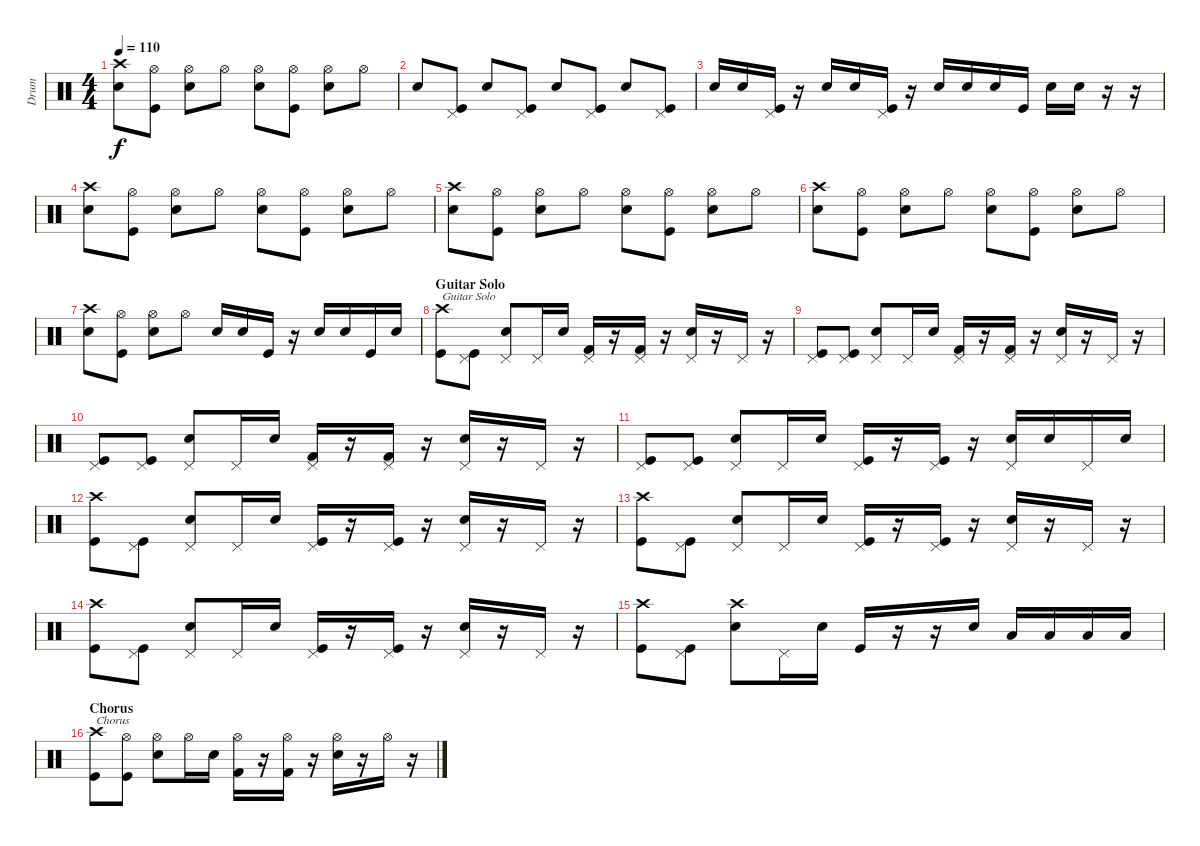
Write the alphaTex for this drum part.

\track ("Drum" "Drum") {instrument percussion}
\staff {score}
\articulation defaults
\ts (4 4)
\tempo 110
\clef neutral
\ks c
("Crash high (hit)" "Electric Snare (hit)").8{dy f} ("Hi-Hat (open)" "Kick (hit)").8 ("Hi-Hat (open)" "Electric Snare (hit)").8 "Hi-Hat (open)".8 ("Hi-Hat (open)" "Electric Snare (hit)").8 ("Hi-Hat (open)" "Kick (hit)").8 ("Hi-Hat (open)" "Electric Snare (hit)").8 "Hi-Hat (open)".8 |
"Electric Snare (hit)".8 ("Pedal Hi-Hat (hit)" "Kick (hit)").8 "Electric Snare (hit)".8 ("Pedal Hi-Hat (hit)" "Kick (hit)").8 "Electric Snare (hit)".8 ("Pedal Hi-Hat (hit)" "Kick (hit)").8 "Electric Snare (hit)".8 ("Pedal Hi-Hat (hit)" "Kick (hit)").8 |
"Electric Snare (hit)".16 "Electric Snare (hit)".16 ("Pedal Hi-Hat (hit)" "Kick (hit)").16 r.16 "Electric Snare (hit)".16 "Electric Snare (hit)".16 ("Pedal Hi-Hat (hit)" "Kick (hit)").16 r.16 "Electric Snare (hit)".16 "Electric Snare (hit)".16 "Electric Snare (hit)".16 "Kick (hit)".16 "Electric Snare (hit)".16 "Electric Snare (hit)".16 r.16 r.16 |
("Crash high (hit)" "Electric Snare (hit)").8 ("Hi-Hat (open)" "Kick (hit)").8 ("Hi-Hat (open)" "Electric Snare (hit)").8 "Hi-Hat (open)".8 ("Hi-Hat (open)" "Electric Snare (hit)").8 ("Hi-Hat (open)" "Kick (hit)").8 ("Hi-Hat (open)" "Electric Snare (hit)").8 "Hi-Hat (open)".8 |
("Crash high (hit)" "Electric Snare (hit)").8 ("Hi-Hat (open)" "Kick (hit)").8 ("Hi-Hat (open)" "Electric Snare (hit)").8 "Hi-Hat (open)".8 ("Hi-Hat (open)" "Electric Snare (hit)").8 ("Hi-Hat (open)" "Kick (hit)").8 ("Hi-Hat (open)" "Electric Snare (hit)").8 "Hi-Hat (open)".8 |
("Crash high (hit)" "Electric Snare (hit)").8 ("Hi-Hat (open)" "Kick (hit)").8 ("Hi-Hat (open)" "Electric Snare (hit)").8 "Hi-Hat (open)".8 ("Hi-Hat (open)" "Electric Snare (hit)").8 ("Hi-Hat (open)" "Kick (hit)").8 ("Hi-Hat (open)" "Electric Snare (hit)").8 "Hi-Hat (open)".8 |
("Crash high (hit)" "Electric Snare (hit)").8 ("Hi-Hat (open)" "Kick (hit)").8 ("Hi-Hat (open)" "Electric Snare (hit)").8 "Hi-Hat (open)".8 "Electric Snare (hit)".16 "Electric Snare (hit)".16 "Kick (hit)".16 r.16 "Electric Snare (hit)".16 "Electric Snare (hit)".16 "Kick (hit)".16 "Electric Snare (hit)".16 |
\section ("" "Guitar Solo")
("Crash high (hit)" "Kick (hit)").8{txt "Guitar Solo"} ("Pedal Hi-Hat (hit)" "Kick (hit)").8 ("Pedal Hi-Hat (hit)" "Electric Snare (hit)").8 "Pedal Hi-Hat (hit)".16 "Electric Snare (hit)".16 ("Pedal Hi-Hat (hit)" "Kick (hit) 2").16 r.16 ("Pedal Hi-Hat (hit)" "Kick (hit) 2").16 r.16 ("Pedal Hi-Hat (hit)" "Electric Snare (hit)").16 r.16 "Pedal Hi-Hat (hit)".16 r.16 |
("Pedal Hi-Hat (hit)" "Kick (hit)").8 ("Pedal Hi-Hat (hit)" "Kick (hit)").8 ("Pedal Hi-Hat (hit)" "Electric Snare (hit)").8 "Pedal Hi-Hat (hit)".16 "Electric Snare (hit)".16 ("Pedal Hi-Hat (hit)" "Kick (hit) 2").16 r.16 ("Pedal Hi-Hat (hit)" "Kick (hit) 2").16 r.16 ("Pedal Hi-Hat (hit)" "Electric Snare (hit)").16 r.16 "Pedal Hi-Hat (hit)".16 r.16 |
("Pedal Hi-Hat (hit)" "Kick (hit)").8 ("Pedal Hi-Hat (hit)" "Kick (hit)").8 ("Pedal Hi-Hat (hit)" "Electric Snare (hit)").8 "Pedal Hi-Hat (hit)".16 "Electric Snare (hit)".16 ("Pedal Hi-Hat (hit)" "Kick (hit) 2").16 r.16 ("Pedal Hi-Hat (hit)" "Kick (hit) 2").16 r.16 ("Pedal Hi-Hat (hit)" "Electric Snare (hit)").16 r.16 "Pedal Hi-Hat (hit)".16 r.16 |
("Pedal Hi-Hat (hit)" "Kick (hit)").8 ("Pedal Hi-Hat (hit)" "Kick (hit)").8 ("Pedal Hi-Hat (hit)" "Electric Snare (hit)").8 "Pedal Hi-Hat (hit)".16 "Electric Snare (hit)".16 ("Pedal Hi-Hat (hit)" "Kick (hit)").16 r.16 ("Pedal Hi-Hat (hit)" "Kick (hit)").16 r.16 ("Pedal Hi-Hat (hit)" "Electric Snare (hit)").16 "Electric Snare (hit)".16 "Pedal Hi-Hat (hit)".16 "Electric Snare (hit)".16 |
("Crash high (hit)" "Kick (hit)").8 ("Pedal Hi-Hat (hit)" "Kick (hit)").8 ("Pedal Hi-Hat (hit)" "Electric Snare (hit)").8 "Pedal Hi-Hat (hit)".16 "Electric Snare (hit)".16 ("Pedal Hi-Hat (hit)" "Kick (hit)").16 r.16 ("Pedal Hi-Hat (hit)" "Kick (hit)").16 r.16 ("Pedal Hi-Hat (hit)" "Electric Snare (hit)").16 r.16 "Pedal Hi-Hat (hit)".16 r.16 |
("Crash high (hit)" "Kick (hit)").8 ("Pedal Hi-Hat (hit)" "Kick (hit)").8 ("Pedal Hi-Hat (hit)" "Electric Snare (hit)").8 "Pedal Hi-Hat (hit)".16 "Electric Snare (hit)".16 ("Pedal Hi-Hat (hit)" "Kick (hit)").16 r.16 ("Pedal Hi-Hat (hit)" "Kick (hit)").16 r.16 ("Pedal Hi-Hat (hit)" "Electric Snare (hit)").16 r.16 "Pedal Hi-Hat (hit)".16 r.16 |
("Crash high (hit)" "Kick (hit)").8 ("Pedal Hi-Hat (hit)" "Kick (hit)").8 ("Pedal Hi-Hat (hit)" "Electric Snare (hit)").8 "Pedal Hi-Hat (hit)".16 "Electric Snare (hit)".16 ("Pedal Hi-Hat (hit)" "Kick (hit)").16 r.16 ("Pedal Hi-Hat (hit)" "Kick (hit)").16 r.16 ("Pedal Hi-Hat (hit)" "Electric Snare (hit)").16 r.16 "Pedal Hi-Hat (hit)".16 r.16 |
("Crash high (hit)" "Kick (hit)").8 ("Pedal Hi-Hat (hit)" "Kick (hit)").8 ("Crash high (hit)" "Electric Snare (hit)").8 "Pedal Hi-Hat (hit)".16 "Electric Snare (hit)".16 "Kick (hit)".16 r.16 r.16 "Electric Snare (hit)".16 "Low Tom (hit)".16 "Low Tom (hit)".16 "Low Tom (hit)".16 "Low Tom (hit)".16 |
\section ("" "Chorus")
("Crash high (hit)" "Kick (hit)").8{txt "Chorus"} ("Hi-Hat (open)" "Kick (hit)").8 ("Hi-Hat (open)" "Electric Snare (hit)").8 "Hi-Hat (open)".16 "Electric Snare (hit)".16 ("Hi-Hat (open)" "Kick (hit) 2").16 r.16 ("Hi-Hat (open)" "Kick (hit) 2").16 r.16 ("Hi-Hat (open)" "Electric Snare (hit)").16 r.16 "Hi-Hat (open)".16 r.16
